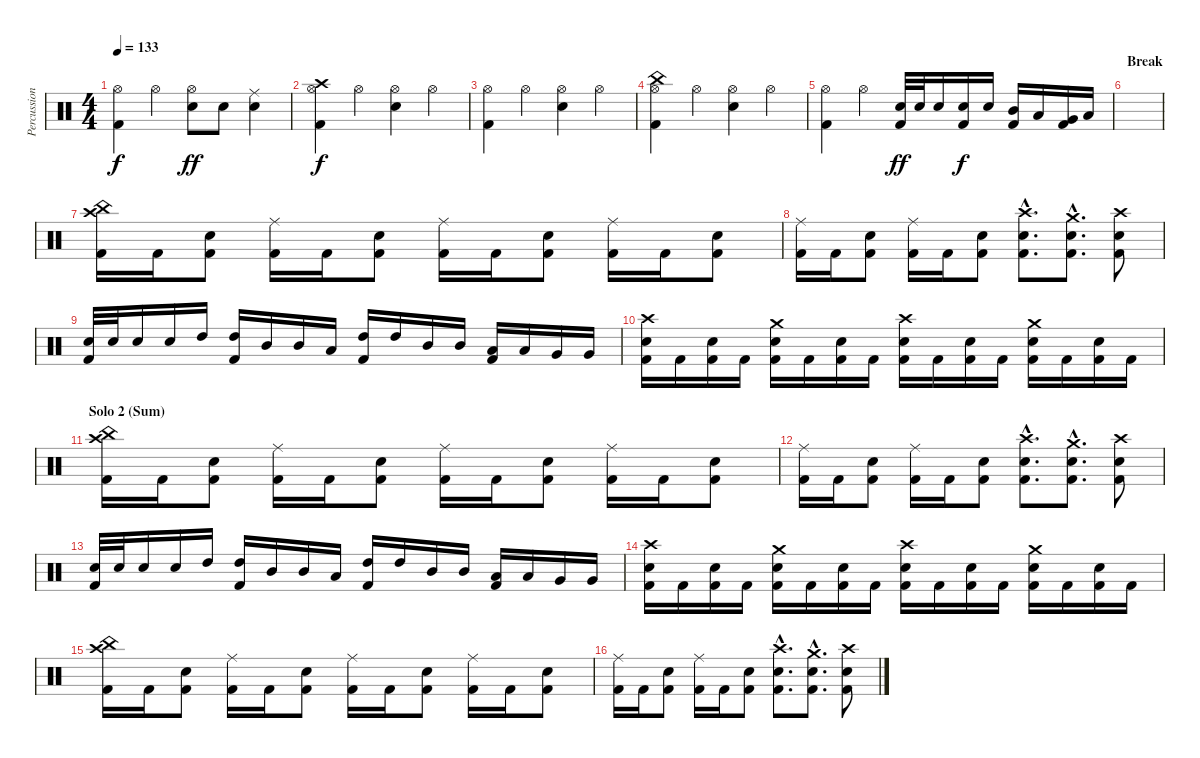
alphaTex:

\track ("Percussion" "Percussion") {instrument percussion}
\staff {score}
\articulation defaults
\ts (4 4)
\tempo 133
\clef neutral
\ks c
("Hi-Hat (open)" "Kick (hit) 2").4{dy f} "Hi-Hat (open)".4 ("Hi-Hat (open)" "Electric Snare (hit)").8{dy ff} "Electric Snare (hit)".8 ("Ride (middle)" "Electric Snare (hit)").4 |
("Hi-Hat (open)" "Crash high (hit)" "Kick (hit) 2").4{dy f} "Hi-Hat (open)".4 ("Hi-Hat (open)" "Electric Snare (hit)").4 "Hi-Hat (open)".4 |
("Hi-Hat (open)" "Kick (hit) 2").4 "Hi-Hat (open)".4 ("Hi-Hat (open)" "Electric Snare (hit)").4 "Hi-Hat (open)".4 |
("Hi-Hat (open)" "China (hit)" "Kick (hit) 2").4 "Hi-Hat (open)".4 ("Hi-Hat (open)" "Electric Snare (hit)").4 "Hi-Hat (open)".4 |
("Hi-Hat (open)" "Kick (hit) 2").4 "Hi-Hat (open)".4 ("Electric Snare (hit)" "Kick (hit) 2").32{dy ff} "Electric Snare (hit)".32 "Electric Snare (hit)".16 ("Electric Snare (hit)" "Kick (hit) 2").16{dy f} "Electric Snare (hit)".16 ("Mid Tom (hit)" "Kick (hit) 2").16 "Low Tom (hit)".16 ("Very Low Tom (hit)" "Kick (hit) 2").16 "Low Floor Tom (hit)".16 |
\section ("" "Break")
|
("China (hit)" "Crash high (hit)" "Kick (hit) 2").16 "Kick (hit) 2".16 ("Electric Snare (hit)" "Kick (hit) 2").8 ("Ride (middle)" "Kick (hit) 2").16 "Kick (hit) 2".16 ("Electric Snare (hit)" "Kick (hit) 2").8 ("Ride (middle)" "Kick (hit) 2").16 "Kick (hit) 2".16 ("Electric Snare (hit)" "Kick (hit) 2").8 ("Ride (middle)" "Kick (hit) 2").16 "Kick (hit) 2".16 ("Electric Snare (hit)" "Kick (hit) 2").8 |
("Ride (middle)" "Kick (hit) 2").16 "Kick (hit) 2".16 ("Electric Snare (hit)" "Kick (hit) 2").8 ("Ride (middle)" "Kick (hit) 2").16 "Kick (hit) 2".16 ("Electric Snare (hit)" "Kick (hit) 2").8 ("Crash high (hit)"{hac} "Electric Snare (hit)"{hac} "Kick (hit) 2"{hac}).8{d} ("Crash medium (hit)"{hac} "Electric Snare (hit)"{hac} "Kick (hit) 2"{hac}).8{d} ("Crash high (hit)" "Electric Snare (hit)" "Kick (hit) 2").8 |
("Electric Snare (hit)" "Kick (hit) 2").32 "Electric Snare (hit)".32 "Electric Snare (hit)".16 "Electric Snare (hit)".16 "High Tom (hit)".16 ("High Tom (hit)" "Kick (hit) 2").16 "Mid Tom (hit)".16 "Mid Tom (hit)".16 "Low Tom (hit)".16 ("High Tom (hit)" "Kick (hit) 2").16 "High Tom (hit)".16 "Mid Tom (hit)".16 "Mid Tom (hit)".16 ("Low Tom (hit)" "Kick (hit) 2").16 "Low Tom (hit)".16 "Very Low Tom (hit)".16 "Very Low Tom (hit)".16 |
("Crash high (hit)" "Electric Snare (hit)" "Kick (hit) 2").16 "Kick (hit) 2".16 ("Electric Snare (hit)" "Kick (hit) 2").16 "Kick (hit) 2".16 ("Crash medium (hit)" "Electric Snare (hit)" "Kick (hit) 2").16 "Kick (hit) 2".16 ("Electric Snare (hit)" "Kick (hit) 2").16 "Kick (hit) 2".16 ("Crash high (hit)" "Electric Snare (hit)" "Kick (hit) 2").16 "Kick (hit) 2".16 ("Electric Snare (hit)" "Kick (hit) 2").16 "Kick (hit) 2".16 ("Crash medium (hit)" "Electric Snare (hit)" "Kick (hit) 2").16 "Kick (hit) 2".16 ("Electric Snare (hit)" "Kick (hit) 2").16 "Kick (hit) 2".16 |
\section ("" "Solo 2 (Sum)")
("China (hit)" "Crash high (hit)" "Kick (hit) 2").16 "Kick (hit) 2".16 ("Electric Snare (hit)" "Kick (hit) 2").8 ("Ride (middle)" "Kick (hit) 2").16 "Kick (hit) 2".16 ("Electric Snare (hit)" "Kick (hit) 2").8 ("Ride (middle)" "Kick (hit) 2").16 "Kick (hit) 2".16 ("Electric Snare (hit)" "Kick (hit) 2").8 ("Ride (middle)" "Kick (hit) 2").16 "Kick (hit) 2".16 ("Electric Snare (hit)" "Kick (hit) 2").8 |
("Ride (middle)" "Kick (hit) 2").16 "Kick (hit) 2".16 ("Electric Snare (hit)" "Kick (hit) 2").8 ("Ride (middle)" "Kick (hit) 2").16 "Kick (hit) 2".16 ("Electric Snare (hit)" "Kick (hit) 2").8 ("Crash high (hit)"{hac} "Electric Snare (hit)"{hac} "Kick (hit) 2"{hac}).8{d} ("Crash medium (hit)"{hac} "Electric Snare (hit)"{hac} "Kick (hit) 2"{hac}).8{d} ("Crash high (hit)" "Electric Snare (hit)" "Kick (hit) 2").8 |
("Electric Snare (hit)" "Kick (hit) 2").32 "Electric Snare (hit)".32 "Electric Snare (hit)".16 "Electric Snare (hit)".16 "High Tom (hit)".16 ("High Tom (hit)" "Kick (hit) 2").16 "Mid Tom (hit)".16 "Mid Tom (hit)".16 "Low Tom (hit)".16 ("High Tom (hit)" "Kick (hit) 2").16 "High Tom (hit)".16 "Mid Tom (hit)".16 "Mid Tom (hit)".16 ("Low Tom (hit)" "Kick (hit) 2").16 "Low Tom (hit)".16 "Very Low Tom (hit)".16 "Very Low Tom (hit)".16 |
("Crash high (hit)" "Electric Snare (hit)" "Kick (hit) 2").16 "Kick (hit) 2".16 ("Electric Snare (hit)" "Kick (hit) 2").16 "Kick (hit) 2".16 ("Crash medium (hit)" "Electric Snare (hit)" "Kick (hit) 2").16 "Kick (hit) 2".16 ("Electric Snare (hit)" "Kick (hit) 2").16 "Kick (hit) 2".16 ("Crash high (hit)" "Electric Snare (hit)" "Kick (hit) 2").16 "Kick (hit) 2".16 ("Electric Snare (hit)" "Kick (hit) 2").16 "Kick (hit) 2".16 ("Crash medium (hit)" "Electric Snare (hit)" "Kick (hit) 2").16 "Kick (hit) 2".16 ("Electric Snare (hit)" "Kick (hit) 2").16 "Kick (hit) 2".16 |
("China (hit)" "Crash high (hit)" "Kick (hit) 2").16 "Kick (hit) 2".16 ("Electric Snare (hit)" "Kick (hit) 2").8 ("Ride (middle)" "Kick (hit) 2").16 "Kick (hit) 2".16 ("Electric Snare (hit)" "Kick (hit) 2").8 ("Ride (middle)" "Kick (hit) 2").16 "Kick (hit) 2".16 ("Electric Snare (hit)" "Kick (hit) 2").8 ("Ride (middle)" "Kick (hit) 2").16 "Kick (hit) 2".16 ("Electric Snare (hit)" "Kick (hit) 2").8 |
("Ride (middle)" "Kick (hit) 2").16 "Kick (hit) 2".16 ("Electric Snare (hit)" "Kick (hit) 2").8 ("Ride (middle)" "Kick (hit) 2").16 "Kick (hit) 2".16 ("Electric Snare (hit)" "Kick (hit) 2").8 ("Crash high (hit)"{hac} "Electric Snare (hit)"{hac} "Kick (hit) 2"{hac}).8{d} ("Crash medium (hit)"{hac} "Electric Snare (hit)"{hac} "Kick (hit) 2"{hac}).8{d} ("Crash high (hit)" "Electric Snare (hit)" "Kick (hit) 2").8
